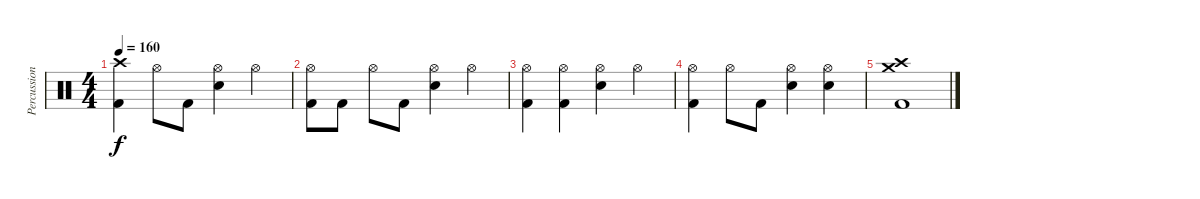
\track ("Percussioni" "Percussion") {instrument percussion}
\staff {score}
\articulation defaults
\ts (4 4)
\tempo 160
\clef neutral
\ks c
("Crash high (hit)" "Kick (hit) 2").4{dy f} "Hi-Hat (open)".8 "Kick (hit) 2".8 ("Hi-Hat (open)" "Electric Snare (hit)").4 "Hi-Hat (open)".4 |
("Hi-Hat (open)" "Kick (hit) 2").8 "Kick (hit) 2".8 "Hi-Hat (open)".8 "Kick (hit) 2".8 ("Hi-Hat (open)" "Electric Snare (hit)").4 "Hi-Hat (open)".4 |
("Hi-Hat (open)" "Kick (hit) 2").4 ("Hi-Hat (open)" "Kick (hit) 2").4 ("Hi-Hat (open)" "Electric Snare (hit)").4 "Hi-Hat (open)".4 |
("Hi-Hat (open)" "Kick (hit) 2").4 "Hi-Hat (open)".8 "Kick (hit) 2".8 ("Hi-Hat (open)" "Electric Snare (hit)").4 ("Hi-Hat (open)" "Electric Snare (hit)").4 |
("Crash high (hit)" "Crash medium (hit)" "Kick (hit) 2").1
